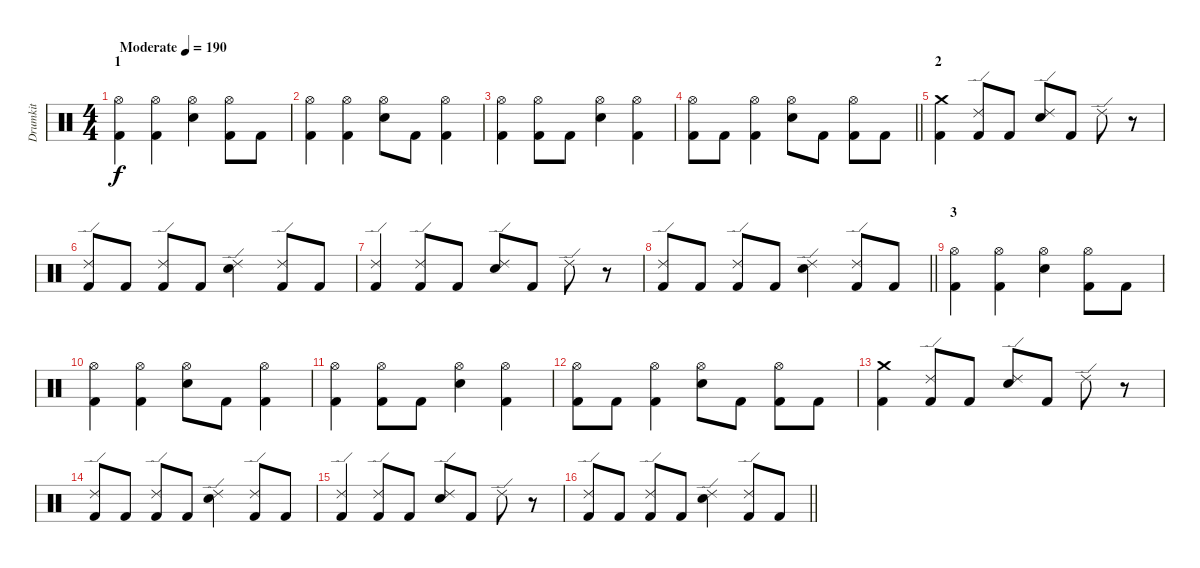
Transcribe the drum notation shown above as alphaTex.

\track ("Drumkit" "Drumkit") {instrument percussion}
\staff {score}
\articulation defaults
\ts (4 4)
\section ("" "1")
\tempo (190 "Moderate")
\clef neutral
\ks c
("Hi-Hat (open)" "Kick (hit) 2").4{dy f} ("Hi-Hat (open)" "Kick (hit) 2").4 ("Hi-Hat (open)" "Snare (hit) 2").4 ("Hi-Hat (open)" "Kick (hit) 2").8 "Kick (hit) 2".8 |
("Hi-Hat (open)" "Kick (hit) 2").4 ("Hi-Hat (open)" "Kick (hit) 2").4 ("Hi-Hat (open)" "Snare (hit) 2").8 "Kick (hit) 2".8 ("Hi-Hat (open)" "Kick (hit) 2").4 |
("Hi-Hat (open)" "Kick (hit) 2").4 ("Hi-Hat (open)" "Kick (hit) 2").8 "Kick (hit) 2".8 ("Hi-Hat (open)" "Snare (hit) 2").4 ("Hi-Hat (open)" "Kick (hit) 2").4 |
\barLineRight lightlight
("Hi-Hat (open)" "Kick (hit) 2").8 "Kick (hit) 2".8 ("Hi-Hat (open)" "Kick (hit) 2").4 ("Hi-Hat (open)" "Snare (hit) 2").8 "Kick (hit) 2".8 ("Hi-Hat (open)" "Kick (hit) 2").8 "Kick (hit) 2".8 |
\section ("" "2")
("Crash medium (hit)" "Kick (hit) 2").4 ("Ride (edge) 2" "Kick (hit) 2").8 "Kick (hit) 2".8 ("Ride (edge) 2" "Snare (hit) 2").8 "Kick (hit) 2".8 "Ride (edge) 2".8 r.8 |
("Ride (edge) 2" "Kick (hit) 2").8 "Kick (hit) 2".8 ("Ride (edge) 2" "Kick (hit) 2").8 "Kick (hit) 2".8 ("Ride (edge) 2" "Snare (hit) 2").4 ("Ride (edge) 2" "Kick (hit) 2").8 "Kick (hit) 2".8 |
("Ride (edge) 2" "Kick (hit) 2").4 ("Ride (edge) 2" "Kick (hit) 2").8 "Kick (hit) 2".8 ("Ride (edge) 2" "Snare (hit) 2").8 "Kick (hit) 2".8 "Ride (edge) 2".8 r.8 |
\barLineRight lightlight
("Ride (edge) 2" "Kick (hit) 2").8 "Kick (hit) 2".8 ("Ride (edge) 2" "Kick (hit) 2").8 "Kick (hit) 2".8 ("Ride (edge) 2" "Snare (hit) 2").4 ("Ride (edge) 2" "Kick (hit) 2").8 "Kick (hit) 2".8 |
\section ("" "3")
("Hi-Hat (open)" "Kick (hit) 2").4 ("Hi-Hat (open)" "Kick (hit) 2").4 ("Hi-Hat (open)" "Snare (hit) 2").4 ("Hi-Hat (open)" "Kick (hit) 2").8 "Kick (hit) 2".8 |
("Hi-Hat (open)" "Kick (hit) 2").4 ("Hi-Hat (open)" "Kick (hit) 2").4 ("Hi-Hat (open)" "Snare (hit) 2").8 "Kick (hit) 2".8 ("Hi-Hat (open)" "Kick (hit) 2").4 |
("Hi-Hat (open)" "Kick (hit) 2").4 ("Hi-Hat (open)" "Kick (hit) 2").8 "Kick (hit) 2".8 ("Hi-Hat (open)" "Snare (hit) 2").4 ("Hi-Hat (open)" "Kick (hit) 2").4 |
("Hi-Hat (open)" "Kick (hit) 2").8 "Kick (hit) 2".8 ("Hi-Hat (open)" "Kick (hit) 2").4 ("Hi-Hat (open)" "Snare (hit) 2").8 "Kick (hit) 2".8 ("Hi-Hat (open)" "Kick (hit) 2").8 "Kick (hit) 2".8 |
("Crash medium (hit)" "Kick (hit) 2").4 ("Ride (edge) 2" "Kick (hit) 2").8 "Kick (hit) 2".8 ("Ride (edge) 2" "Snare (hit) 2").8 "Kick (hit) 2".8 "Ride (edge) 2".8 r.8 |
("Ride (edge) 2" "Kick (hit) 2").8 "Kick (hit) 2".8 ("Ride (edge) 2" "Kick (hit) 2").8 "Kick (hit) 2".8 ("Ride (edge) 2" "Snare (hit) 2").4 ("Ride (edge) 2" "Kick (hit) 2").8 "Kick (hit) 2".8 |
("Ride (edge) 2" "Kick (hit) 2").4 ("Ride (edge) 2" "Kick (hit) 2").8 "Kick (hit) 2".8 ("Ride (edge) 2" "Snare (hit) 2").8 "Kick (hit) 2".8 "Ride (edge) 2".8 r.8 |
\barLineRight lightlight
("Ride (edge) 2" "Kick (hit) 2").8 "Kick (hit) 2".8 ("Ride (edge) 2" "Kick (hit) 2").8 "Kick (hit) 2".8 ("Ride (edge) 2" "Snare (hit) 2").4 ("Ride (edge) 2" "Kick (hit) 2").8 "Kick (hit) 2".8
